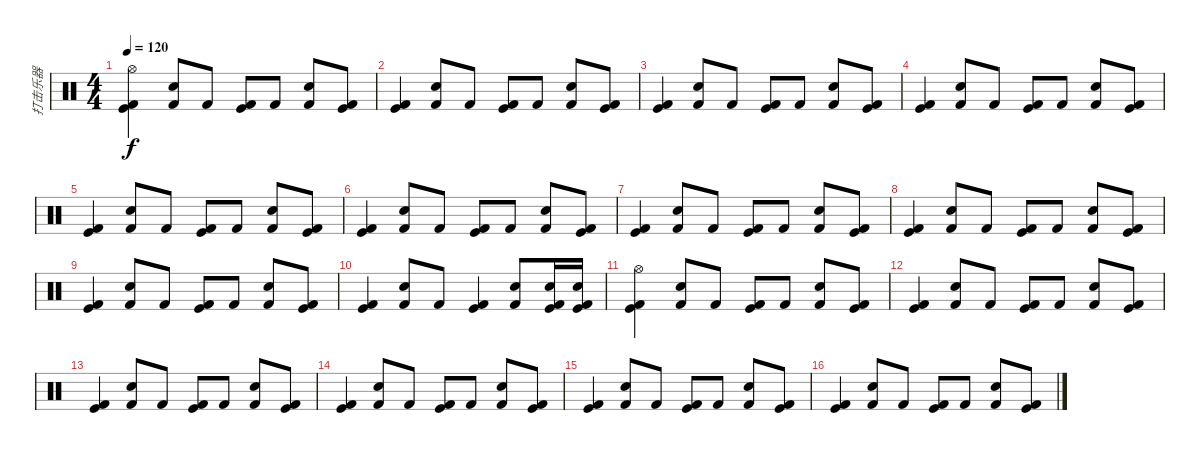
\track ("打击乐器" "打击乐器") {instrument percussion}
\staff {score}
\articulation defaults
\ts (4 4)
\tempo 120
\clef neutral
\ks c
("Kick (hit) 2" "Kick (hit)" "Hi-Hat (open)").4{dy f} ("Kick (hit) 2" "Electric Snare (hit)").8 "Kick (hit) 2".8 ("Kick (hit) 2" "Kick (hit)").8 "Kick (hit) 2".8 ("Kick (hit) 2" "Electric Snare (hit)").8 ("Kick (hit) 2" "Kick (hit)").8 |
("Kick (hit) 2" "Kick (hit)").4 ("Kick (hit) 2" "Electric Snare (hit)").8 "Kick (hit) 2".8 ("Kick (hit) 2" "Kick (hit)").8 "Kick (hit) 2".8 ("Kick (hit) 2" "Electric Snare (hit)").8 ("Kick (hit) 2" "Kick (hit)").8 |
("Kick (hit) 2" "Kick (hit)").4 ("Kick (hit) 2" "Electric Snare (hit)").8 "Kick (hit) 2".8 ("Kick (hit) 2" "Kick (hit)").8 "Kick (hit) 2".8 ("Kick (hit) 2" "Electric Snare (hit)").8 ("Kick (hit) 2" "Kick (hit)").8 |
("Kick (hit) 2" "Kick (hit)").4 ("Kick (hit) 2" "Electric Snare (hit)").8 "Kick (hit) 2".8 ("Kick (hit) 2" "Kick (hit)").8 "Kick (hit) 2".8 ("Kick (hit) 2" "Electric Snare (hit)").8 ("Kick (hit) 2" "Kick (hit)").8 |
("Kick (hit) 2" "Kick (hit)").4 ("Kick (hit) 2" "Electric Snare (hit)").8 "Kick (hit) 2".8 ("Kick (hit) 2" "Kick (hit)").8 "Kick (hit) 2".8 ("Kick (hit) 2" "Electric Snare (hit)").8 ("Kick (hit) 2" "Kick (hit)").8 |
("Kick (hit) 2" "Kick (hit)").4 ("Kick (hit) 2" "Electric Snare (hit)").8 "Kick (hit) 2".8 ("Kick (hit) 2" "Kick (hit)").8 "Kick (hit) 2".8 ("Kick (hit) 2" "Electric Snare (hit)").8 ("Kick (hit) 2" "Kick (hit)").8 |
("Kick (hit) 2" "Kick (hit)").4 ("Kick (hit) 2" "Electric Snare (hit)").8 "Kick (hit) 2".8 ("Kick (hit) 2" "Kick (hit)").8 "Kick (hit) 2".8 ("Kick (hit) 2" "Electric Snare (hit)").8 ("Kick (hit) 2" "Kick (hit)").8 |
("Kick (hit) 2" "Kick (hit)").4 ("Kick (hit) 2" "Electric Snare (hit)").8 "Kick (hit) 2".8 ("Kick (hit) 2" "Kick (hit)").8 "Kick (hit) 2".8 ("Kick (hit) 2" "Electric Snare (hit)").8 ("Kick (hit) 2" "Kick (hit)").8 |
("Kick (hit) 2" "Kick (hit)").4 ("Kick (hit) 2" "Electric Snare (hit)").8 "Kick (hit) 2".8 ("Kick (hit) 2" "Kick (hit)").8 "Kick (hit) 2".8 ("Kick (hit) 2" "Electric Snare (hit)").8 ("Kick (hit) 2" "Kick (hit)").8 |
("Kick (hit) 2" "Kick (hit)").4 ("Kick (hit) 2" "Electric Snare (hit)").8 "Kick (hit) 2".8 ("Kick (hit) 2" "Kick (hit)").4 ("Kick (hit) 2" "Electric Snare (hit)").8 ("Kick (hit) 2" "Kick (hit)" "Electric Snare (hit)").16 ("Kick (hit) 2" "Kick (hit)" "Electric Snare (hit)").16 |
("Kick (hit) 2" "Kick (hit)" "Hi-Hat (open)").4 ("Kick (hit) 2" "Electric Snare (hit)").8 "Kick (hit) 2".8 ("Kick (hit) 2" "Kick (hit)").8 "Kick (hit) 2".8 ("Kick (hit) 2" "Electric Snare (hit)").8 ("Kick (hit) 2" "Kick (hit)").8 |
("Kick (hit) 2" "Kick (hit)").4 ("Kick (hit) 2" "Electric Snare (hit)").8 "Kick (hit) 2".8 ("Kick (hit) 2" "Kick (hit)").8 "Kick (hit) 2".8 ("Kick (hit) 2" "Electric Snare (hit)").8 ("Kick (hit) 2" "Kick (hit)").8 |
("Kick (hit) 2" "Kick (hit)").4 ("Kick (hit) 2" "Electric Snare (hit)").8 "Kick (hit) 2".8 ("Kick (hit) 2" "Kick (hit)").8 "Kick (hit) 2".8 ("Kick (hit) 2" "Electric Snare (hit)").8 ("Kick (hit) 2" "Kick (hit)").8 |
("Kick (hit) 2" "Kick (hit)").4 ("Kick (hit) 2" "Electric Snare (hit)").8 "Kick (hit) 2".8 ("Kick (hit) 2" "Kick (hit)").8 "Kick (hit) 2".8 ("Kick (hit) 2" "Electric Snare (hit)").8 ("Kick (hit) 2" "Kick (hit)").8 |
("Kick (hit) 2" "Kick (hit)").4 ("Kick (hit) 2" "Electric Snare (hit)").8 "Kick (hit) 2".8 ("Kick (hit) 2" "Kick (hit)").8 "Kick (hit) 2".8 ("Kick (hit) 2" "Electric Snare (hit)").8 ("Kick (hit) 2" "Kick (hit)").8 |
("Kick (hit) 2" "Kick (hit)").4 ("Kick (hit) 2" "Electric Snare (hit)").8 "Kick (hit) 2".8 ("Kick (hit) 2" "Kick (hit)").8 "Kick (hit) 2".8 ("Kick (hit) 2" "Electric Snare (hit)").8 ("Kick (hit) 2" "Kick (hit)").8
